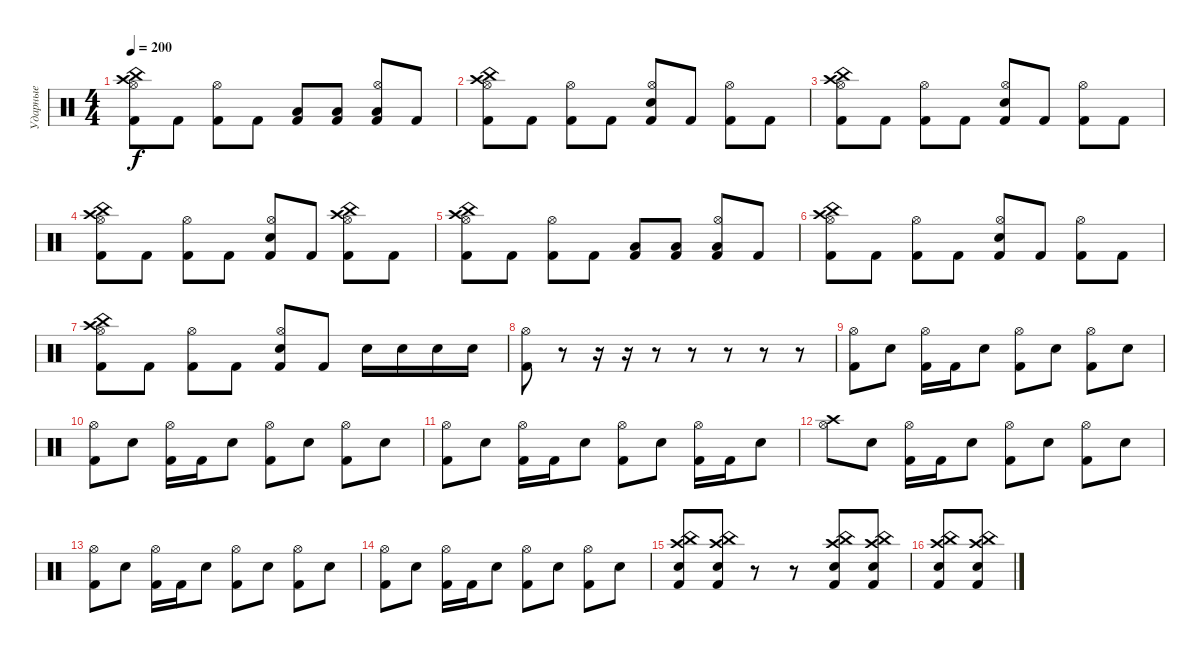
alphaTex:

\track ("Ударные" "Ударные") {instrument percussion}
\staff {score}
\articulation defaults
\ts (4 4)
\tempo 200
\clef neutral
\ks c
("Kick (hit) 2" "Hi-Hat (open)" "China (hit)" "Crash high (hit)").8{dy f} "Kick (hit) 2".8 ("Kick (hit) 2" "Hi-Hat (open)").8 "Kick (hit) 2".8 ("Kick (hit) 2" "Low Floor Tom (hit)").8 ("Kick (hit) 2" "Low Floor Tom (hit)").8 ("Kick (hit) 2" "Low Floor Tom (hit)" "Hi-Hat (open)").8 "Kick (hit) 2".8 |
("Kick (hit) 2" "Hi-Hat (open)" "China (hit)" "Crash high (hit)").8 "Kick (hit) 2".8 ("Kick (hit) 2" "Hi-Hat (open)").8 "Kick (hit) 2".8 ("Kick (hit) 2" "Electric Snare (hit)" "Hi-Hat (open)").8 "Kick (hit) 2".8 ("Kick (hit) 2" "Hi-Hat (open)").8 "Kick (hit) 2".8 |
("Kick (hit) 2" "Hi-Hat (open)" "Crash high (hit)" "China (hit)").8 "Kick (hit) 2".8 ("Kick (hit) 2" "Hi-Hat (open)").8 "Kick (hit) 2".8 ("Kick (hit) 2" "Electric Snare (hit)" "Hi-Hat (open)").8 "Kick (hit) 2".8 ("Kick (hit) 2" "Hi-Hat (open)").8 "Kick (hit) 2".8 |
("Kick (hit) 2" "Hi-Hat (open)" "Crash high (hit)" "China (hit)").8 "Kick (hit) 2".8 ("Kick (hit) 2" "Hi-Hat (open)").8 "Kick (hit) 2".8 ("Kick (hit) 2" "Electric Snare (hit)" "Hi-Hat (open)").8 "Kick (hit) 2".8 ("Kick (hit) 2" "Hi-Hat (open)" "Crash high (hit)" "China (hit)").8 "Kick (hit) 2".8 |
("Kick (hit) 2" "Hi-Hat (open)" "China (hit)" "Crash high (hit)").8 "Kick (hit) 2".8 ("Kick (hit) 2" "Hi-Hat (open)").8 "Kick (hit) 2".8 ("Kick (hit) 2" "Low Floor Tom (hit)").8 ("Kick (hit) 2" "Low Floor Tom (hit)").8 ("Kick (hit) 2" "Low Floor Tom (hit)" "Hi-Hat (open)").8 "Kick (hit) 2".8 |
("Kick (hit) 2" "Hi-Hat (open)" "China (hit)" "Crash high (hit)").8 "Kick (hit) 2".8 ("Kick (hit) 2" "Hi-Hat (open)").8 "Kick (hit) 2".8 ("Kick (hit) 2" "Electric Snare (hit)" "Hi-Hat (open)").8 "Kick (hit) 2".8 ("Kick (hit) 2" "Hi-Hat (open)").8 "Kick (hit) 2".8 |
("Kick (hit) 2" "Hi-Hat (open)" "Crash high (hit)" "China (hit)").8 "Kick (hit) 2".8 ("Kick (hit) 2" "Hi-Hat (open)").8 "Kick (hit) 2".8 ("Kick (hit) 2" "Electric Snare (hit)" "Hi-Hat (open)").8 "Kick (hit) 2".8 "Electric Snare (hit)".16 "Electric Snare (hit)".16 "Electric Snare (hit)".16 "Electric Snare (hit)".16 |
("Kick (hit) 2" "Hi-Hat (open)").8 r.8 r.16 r.16 r.8 r.8 r.8 r.8 r.8 |
("Kick (hit) 2" "Hi-Hat (open)").8 "Electric Snare (hit)".8 ("Kick (hit) 2" "Hi-Hat (open)").16 "Kick (hit) 2".16 "Electric Snare (hit)".8 ("Kick (hit) 2" "Hi-Hat (open)").8 "Electric Snare (hit)".8 ("Kick (hit) 2" "Hi-Hat (open)").8 "Electric Snare (hit)".8 |
("Kick (hit) 2" "Hi-Hat (open)").8 "Electric Snare (hit)".8 ("Kick (hit) 2" "Hi-Hat (open)").16 "Kick (hit) 2".16 "Electric Snare (hit)".8 ("Kick (hit) 2" "Hi-Hat (open)").8 "Electric Snare (hit)".8 ("Kick (hit) 2" "Hi-Hat (open)").8 "Electric Snare (hit)".8 |
("Kick (hit) 2" "Hi-Hat (open)").8 "Electric Snare (hit)".8 ("Kick (hit) 2" "Hi-Hat (open)").16 "Kick (hit) 2".16 "Electric Snare (hit)".8 ("Kick (hit) 2" "Hi-Hat (open)").8 "Electric Snare (hit)".8 ("Kick (hit) 2" "Hi-Hat (open)").16 "Kick (hit) 2".16 "Electric Snare (hit)".8 |
("Crash high (hit)" "Hi-Hat (open)").8 "Electric Snare (hit)".8 ("Kick (hit) 2" "Hi-Hat (open)").16 "Kick (hit) 2".16 "Electric Snare (hit)".8 ("Kick (hit) 2" "Hi-Hat (open)").8 "Electric Snare (hit)".8 ("Kick (hit) 2" "Hi-Hat (open)").8 "Electric Snare (hit)".8 |
("Kick (hit) 2" "Hi-Hat (open)").8 "Electric Snare (hit)".8 ("Kick (hit) 2" "Hi-Hat (open)").16 "Kick (hit) 2".16 "Electric Snare (hit)".8 ("Kick (hit) 2" "Hi-Hat (open)").8 "Electric Snare (hit)".8 ("Kick (hit) 2" "Hi-Hat (open)").8 "Electric Snare (hit)".8 |
("Kick (hit) 2" "Hi-Hat (open)").8 "Electric Snare (hit)".8 ("Kick (hit) 2" "Hi-Hat (open)").16 "Kick (hit) 2".16 "Electric Snare (hit)".8 ("Kick (hit) 2" "Hi-Hat (open)").8 "Electric Snare (hit)".8 ("Kick (hit) 2" "Hi-Hat (open)").8 "Electric Snare (hit)".8 |
("Kick (hit) 2" "Crash high (hit)" "Electric Snare (hit)" "China (hit)").8 ("China (hit)" "Crash high (hit)" "Kick (hit) 2" "Electric Snare (hit)").8 r.8 r.8 ("Electric Snare (hit)" "Kick (hit) 2" "Crash high (hit)" "China (hit)").8 ("China (hit)" "Crash high (hit)" "Kick (hit) 2" "Electric Snare (hit)").8 |
("Electric Snare (hit)" "Crash high (hit)" "China (hit)" "Kick (hit) 2").8 ("Electric Snare (hit)" "Kick (hit) 2" "Crash high (hit)" "China (hit)").8
